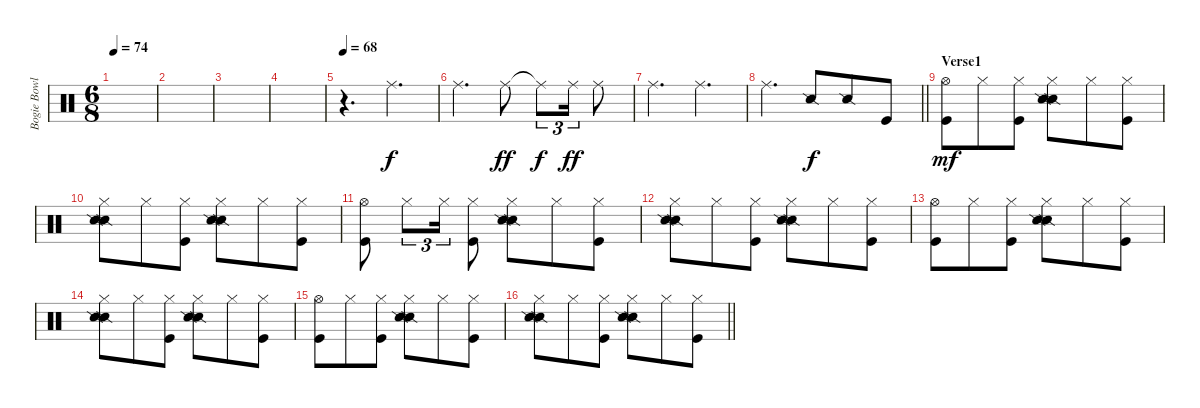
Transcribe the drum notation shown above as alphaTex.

\track ("Bogie Bowles" "Bogie Bowl") {instrument percussion}
\staff {score}
\articulation defaults
\ts (6 8)
\tempo 74
\clef neutral
\ks c
|
|
|
|
\tempo 68
r.4{d} "Ride (middle)".4{d} |
"Ride (middle)".4{d dy f} "Ride (middle)".8{dy ff} "Ride (middle)"{t}.8{tu (3 2) dy f} "Ride (middle)".16{tu (3 2) dy ff} "Ride (middle)".8 |
"Ride (middle)".4{d} "Ride (middle)".4{d} |
\barLineRight lightlight "Ride (middle)".4{d} "Snare (side stick) 2".8{dy f} "Snare (side stick) 2".8 "Kick (hit)".8
|
\section ("" "Verse1")
("Hi-Hat (open)" "Kick (hit)").8{dy mf} "Hi-Hat (closed)".8 ("Hi-Hat (closed)" "Kick (hit)").8 ("Hi-Hat (closed)" "Snare (side stick) 2" "Snare (side stick) 2").8 "Hi-Hat (closed)".8 ("Hi-Hat (closed)" "Kick (hit)").8 |
("Hi-Hat (closed)" "Snare (side stick) 2" "Snare (side stick) 2").8 "Hi-Hat (closed)".8 ("Hi-Hat (closed)" "Kick (hit)").8 ("Hi-Hat (closed)" "Snare (side stick) 2" "Snare (side stick) 2").8 "Hi-Hat (closed)".8 ("Hi-Hat (closed)" "Kick (hit)").8 |
("Hi-Hat (open)" "Kick (hit)").8 "Hi-Hat (closed)".8{tu (3 2)} "Hi-Hat (closed)".16{tu (3 2)} ("Hi-Hat (closed)" "Kick (hit)").8 ("Hi-Hat (closed)" "Snare (side stick) 2" "Snare (side stick) 2").8 "Hi-Hat (closed)".8 ("Hi-Hat (closed)" "Kick (hit)").8 |
("Hi-Hat (closed)" "Snare (side stick) 2" "Snare (side stick) 2").8 "Hi-Hat (closed)".8 ("Hi-Hat (closed)" "Kick (hit)").8 ("Hi-Hat (closed)" "Snare (side stick) 2" "Snare (side stick) 2").8 "Hi-Hat (closed)".8 ("Hi-Hat (closed)" "Kick (hit)").8 |
("Hi-Hat (open)" "Kick (hit)").8 "Hi-Hat (closed)".8 ("Hi-Hat (closed)" "Kick (hit)").8 ("Hi-Hat (closed)" "Snare (side stick) 2" "Snare (side stick) 2").8 "Hi-Hat (closed)".8 ("Hi-Hat (closed)" "Kick (hit)").8 |
("Hi-Hat (closed)" "Snare (side stick) 2" "Snare (side stick) 2").8 "Hi-Hat (closed)".8 ("Hi-Hat (closed)" "Kick (hit)").8 ("Hi-Hat (closed)" "Snare (side stick) 2" "Snare (side stick) 2").8 "Hi-Hat (closed)".8 ("Hi-Hat (closed)" "Kick (hit)").8 |
("Hi-Hat (open)" "Kick (hit)").8 "Hi-Hat (closed)".8 ("Hi-Hat (closed)" "Kick (hit)").8 ("Hi-Hat (closed)" "Snare (side stick) 2" "Snare (side stick) 2").8 "Hi-Hat (closed)".8 ("Hi-Hat (closed)" "Kick (hit)").8 |
\barLineRight lightlight
("Hi-Hat (closed)" "Snare (side stick) 2" "Snare (side stick) 2").8 "Hi-Hat (closed)".8 ("Hi-Hat (closed)" "Kick (hit)").8 ("Hi-Hat (closed)" "Snare (side stick) 2" "Snare (side stick) 2").8 "Hi-Hat (closed)".8 ("Hi-Hat (closed)" "Kick (hit)").8
